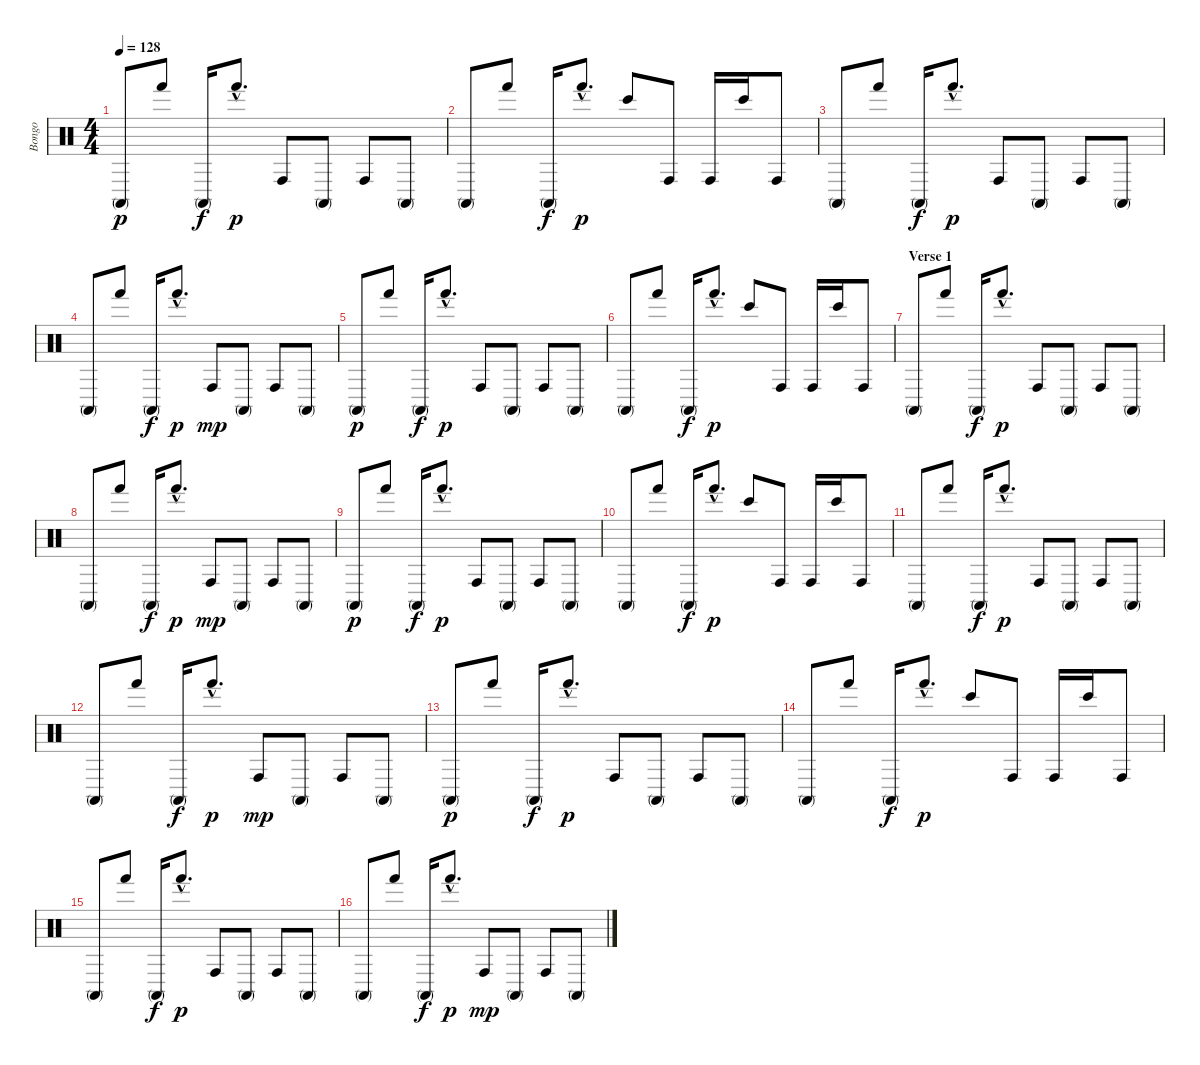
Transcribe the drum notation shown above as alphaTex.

\track ("Bongo" "Bongo") {instrument percussion}
\staff {score}
\articulation defaults
\ts (4 4)
\tempo 128
\clef neutral
\ks c "Conga high (mute)".8{dy p} "Hand (hit)".8 "Conga high (mute)".16{dy f} "Hand (hit)"{hac}.8{d dy p} "Conga high (hit)".8 "Conga high (mute)".8 "Conga high (hit)".8 "Conga high (mute)".8
|
"Conga high (mute)".8 "Hand (hit)".8 "Conga high (mute)".16{dy f} "Hand (hit)"{hac}.8{d dy p} "Bongo High (hit)".8 "Conga high (hit)".8 "Conga high (hit)".16 "Bongo High (hit)".16 "Conga high (hit)".8 |
"Conga high (mute)".8 "Hand (hit)".8 "Conga high (mute)".16{dy f} "Hand (hit)"{hac}.8{d dy p} "Conga high (hit)".8 "Conga high (mute)".8 "Conga high (hit)".8 "Conga high (mute)".8 |
"Conga high (mute)".8 "Hand (hit)".8 "Conga high (mute)".16{dy f} "Hand (hit)"{hac}.8{d dy p} "Conga high (hit)".8{dy mp} "Conga high (mute)".8 "Conga high (hit)".8 "Conga high (mute)".8 |
"Conga high (mute)".8{dy p} "Hand (hit)".8 "Conga high (mute)".16{dy f} "Hand (hit)"{hac}.8{d dy p} "Conga high (hit)".8 "Conga high (mute)".8 "Conga high (hit)".8 "Conga high (mute)".8 |
"Conga high (mute)".8 "Hand (hit)".8 "Conga high (mute)".16{dy f} "Hand (hit)"{hac}.8{d dy p} "Bongo High (hit)".8 "Conga high (hit)".8 "Conga high (hit)".16 "Bongo High (hit)".16 "Conga high (hit)".8 |
\section ("" "Verse 1")
"Conga high (mute)".8 "Hand (hit)".8 "Conga high (mute)".16{dy f} "Hand (hit)"{hac}.8{d dy p} "Conga high (hit)".8 "Conga high (mute)".8 "Conga high (hit)".8 "Conga high (mute)".8 |
"Conga high (mute)".8 "Hand (hit)".8 "Conga high (mute)".16{dy f} "Hand (hit)"{hac}.8{d dy p} "Conga high (hit)".8{dy mp} "Conga high (mute)".8 "Conga high (hit)".8 "Conga high (mute)".8 |
"Conga high (mute)".8{dy p} "Hand (hit)".8 "Conga high (mute)".16{dy f} "Hand (hit)"{hac}.8{d dy p} "Conga high (hit)".8 "Conga high (mute)".8 "Conga high (hit)".8 "Conga high (mute)".8 |
"Conga high (mute)".8 "Hand (hit)".8 "Conga high (mute)".16{dy f} "Hand (hit)"{hac}.8{d dy p} "Bongo High (hit)".8 "Conga high (hit)".8 "Conga high (hit)".16 "Bongo High (hit)".16 "Conga high (hit)".8 |
"Conga high (mute)".8 "Hand (hit)".8 "Conga high (mute)".16{dy f} "Hand (hit)"{hac}.8{d dy p} "Conga high (hit)".8 "Conga high (mute)".8 "Conga high (hit)".8 "Conga high (mute)".8 |
"Conga high (mute)".8 "Hand (hit)".8 "Conga high (mute)".16{dy f} "Hand (hit)"{hac}.8{d dy p} "Conga high (hit)".8{dy mp} "Conga high (mute)".8 "Conga high (hit)".8 "Conga high (mute)".8 |
"Conga high (mute)".8{dy p} "Hand (hit)".8 "Conga high (mute)".16{dy f} "Hand (hit)"{hac}.8{d dy p} "Conga high (hit)".8 "Conga high (mute)".8 "Conga high (hit)".8 "Conga high (mute)".8 |
"Conga high (mute)".8 "Hand (hit)".8 "Conga high (mute)".16{dy f} "Hand (hit)"{hac}.8{d dy p} "Bongo High (hit)".8 "Conga high (hit)".8 "Conga high (hit)".16 "Bongo High (hit)".16 "Conga high (hit)".8 |
"Conga high (mute)".8 "Hand (hit)".8 "Conga high (mute)".16{dy f} "Hand (hit)"{hac}.8{d dy p} "Conga high (hit)".8 "Conga high (mute)".8 "Conga high (hit)".8 "Conga high (mute)".8 |
"Conga high (mute)".8 "Hand (hit)".8 "Conga high (mute)".16{dy f} "Hand (hit)"{hac}.8{d dy p} "Conga high (hit)".8{dy mp} "Conga high (mute)".8 "Conga high (hit)".8 "Conga high (mute)".8
